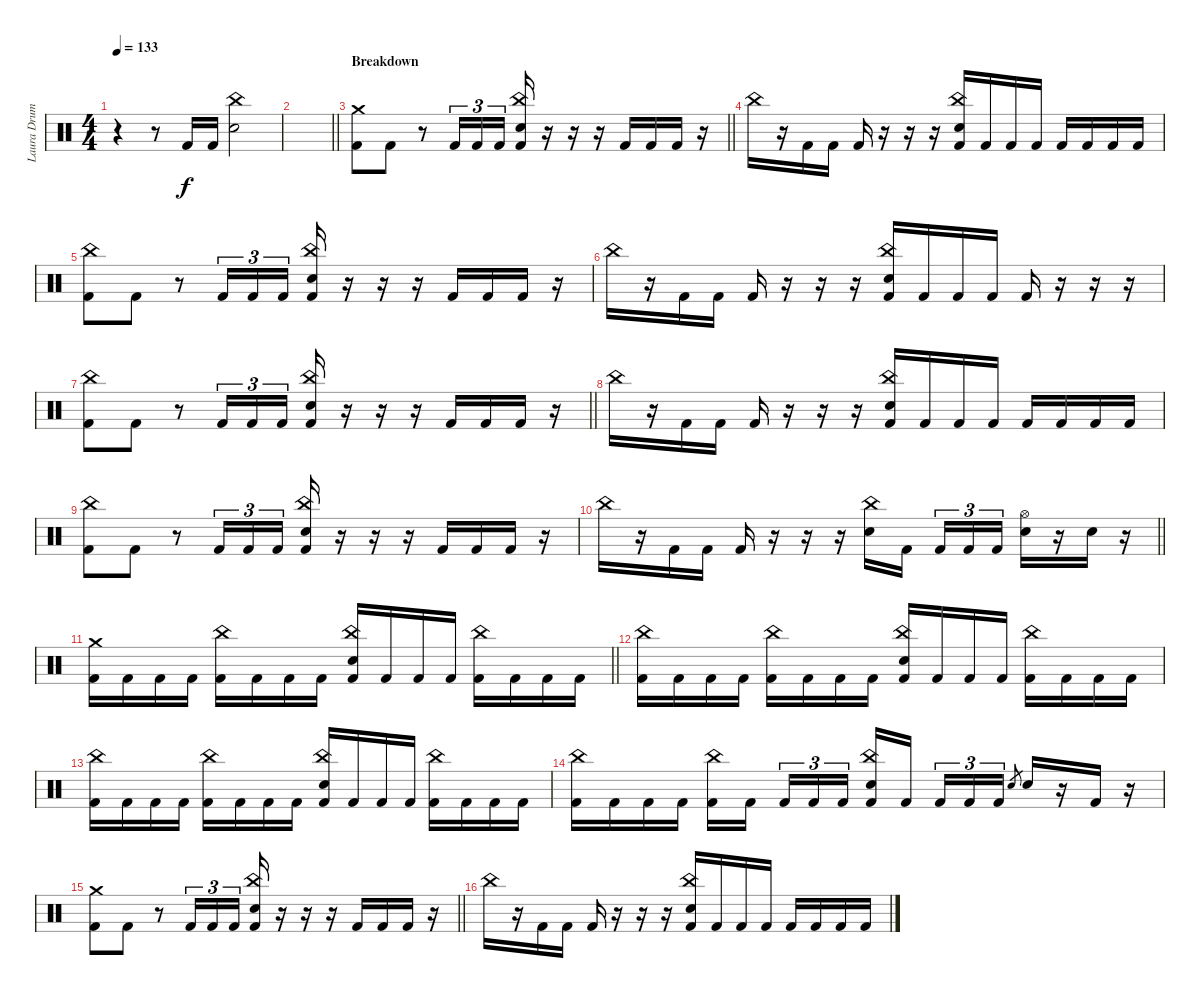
\track ("Laura Drums" "Laura Drum") {instrument percussion}
\staff {score}
\articulation defaults
\ts (4 4)
\tempo 133
\clef neutral
\ks c
r.4{dy f} r.8 "Kick (hit) 2".16 "Kick (hit) 2".16 ("China (hit)" "Electric Snare (hit)").2 |
\barLineRight lightlight
|
\section ("" "Breakdown")
\barLineRight lightlight
("Crash medium (hit)" "Kick (hit) 2").8 "Kick (hit) 2".8 r.8 "Kick (hit) 2".16{tu (3 2)} "Kick (hit) 2".16{tu (3 2)} "Kick (hit) 2".16{tu (3 2)} ("China (hit)" "Electric Snare (hit)" "Kick (hit) 2").16 r.16 r.16 r.16 "Kick (hit) 2".16 "Kick (hit) 2".16 "Kick (hit) 2".16 r.16 |
"China (hit)".16 r.16 "Kick (hit) 2".16 "Kick (hit) 2".16 "Kick (hit) 2".16 r.16 r.16 r.16 ("China (hit)" "Electric Snare (hit)" "Kick (hit) 2").16 "Kick (hit) 2".16 "Kick (hit) 2".16 "Kick (hit) 2".16 "Kick (hit) 2".16 "Kick (hit) 2".16 "Kick (hit) 2".16 "Kick (hit) 2".16 |
("China (hit)" "Kick (hit) 2").8 "Kick (hit) 2".8 r.8 "Kick (hit) 2".16{tu (3 2)} "Kick (hit) 2".16{tu (3 2)} "Kick (hit) 2".16{tu (3 2)} ("China (hit)" "Electric Snare (hit)" "Kick (hit) 2").16 r.16 r.16 r.16 "Kick (hit) 2".16 "Kick (hit) 2".16 "Kick (hit) 2".16 r.16 |
"China (hit)".16 r.16 "Kick (hit) 2".16 "Kick (hit) 2".16 "Kick (hit) 2".16 r.16 r.16 r.16 ("China (hit)" "Electric Snare (hit)" "Kick (hit) 2").16 "Kick (hit) 2".16 "Kick (hit) 2".16 "Kick (hit) 2".16 "Kick (hit) 2".16 r.16 r.16 r.16 |
\barLineRight lightlight
("China (hit)" "Kick (hit) 2").8 "Kick (hit) 2".8 r.8 "Kick (hit) 2".16{tu (3 2)} "Kick (hit) 2".16{tu (3 2)} "Kick (hit) 2".16{tu (3 2)} ("China (hit)" "Electric Snare (hit)" "Kick (hit) 2").16 r.16 r.16 r.16 "Kick (hit) 2".16 "Kick (hit) 2".16 "Kick (hit) 2".16 r.16 |
"China (hit)".16 r.16 "Kick (hit) 2".16 "Kick (hit) 2".16 "Kick (hit) 2".16 r.16 r.16 r.16 ("China (hit)" "Electric Snare (hit)" "Kick (hit) 2").16 "Kick (hit) 2".16 "Kick (hit) 2".16 "Kick (hit) 2".16 "Kick (hit) 2".16 "Kick (hit) 2".16 "Kick (hit) 2".16 "Kick (hit) 2".16 |
("China (hit)" "Kick (hit) 2").8 "Kick (hit) 2".8 r.8 "Kick (hit) 2".16{tu (3 2)} "Kick (hit) 2".16{tu (3 2)} "Kick (hit) 2".16{tu (3 2)} ("China (hit)" "Electric Snare (hit)" "Kick (hit) 2").16 r.16 r.16 r.16 "Kick (hit) 2".16 "Kick (hit) 2".16 "Kick (hit) 2".16 r.16 |
\barLineRight lightlight "China (hit)".16
r.16 "Kick (hit) 2".16 "Kick (hit) 2".16 "Kick (hit) 2".16 r.16 r.16 r.16 ("China (hit)" "Electric Snare (hit)").16 "Kick (hit) 2".16{beam splitsecondary} "Kick (hit) 2".16{tu (3 2)} "Kick (hit) 2".16{tu (3 2)} "Kick (hit) 2".16{tu (3 2)} ("Hi-Hat (open)" "Electric Snare (hit)").16 r.16 "Electric Snare (hit)".16 r.16 |
\section ("" "")
\barLineRight lightlight
("Crash medium (hit)" "Kick (hit) 2").16 "Kick (hit) 2".16 "Kick (hit) 2".16 "Kick (hit) 2".16 ("China (hit)" "Kick (hit) 2").16 "Kick (hit) 2".16 "Kick (hit) 2".16 "Kick (hit) 2".16 ("China (hit)" "Electric Snare (hit)" "Kick (hit) 2").16 "Kick (hit) 2".16 "Kick (hit) 2".16 "Kick (hit) 2".16 ("China (hit)" "Kick (hit) 2").16 "Kick (hit) 2".16 "Kick (hit) 2".16 "Kick (hit) 2".16 |
("China (hit)" "Kick (hit) 2").16 "Kick (hit) 2".16 "Kick (hit) 2".16 "Kick (hit) 2".16 ("China (hit)" "Kick (hit) 2").16 "Kick (hit) 2".16 "Kick (hit) 2".16 "Kick (hit) 2".16 ("China (hit)" "Electric Snare (hit)" "Kick (hit) 2").16 "Kick (hit) 2".16 "Kick (hit) 2".16 "Kick (hit) 2".16 ("China (hit)" "Kick (hit) 2").16 "Kick (hit) 2".16 "Kick (hit) 2".16 "Kick (hit) 2".16 |
("China (hit)" "Kick (hit) 2").16 "Kick (hit) 2".16 "Kick (hit) 2".16 "Kick (hit) 2".16 ("China (hit)" "Kick (hit) 2").16 "Kick (hit) 2".16 "Kick (hit) 2".16 "Kick (hit) 2".16 ("China (hit)" "Electric Snare (hit)" "Kick (hit) 2").16 "Kick (hit) 2".16 "Kick (hit) 2".16 "Kick (hit) 2".16 ("China (hit)" "Kick (hit) 2").16 "Kick (hit) 2".16 "Kick (hit) 2".16 "Kick (hit) 2".16 |
("China (hit)" "Kick (hit) 2").16 "Kick (hit) 2".16 "Kick (hit) 2".16 "Kick (hit) 2".16 ("China (hit)" "Kick (hit) 2").16 "Kick (hit) 2".16{beam splitsecondary} "Kick (hit) 2".16{tu (3 2)} "Kick (hit) 2".16{tu (3 2)} "Kick (hit) 2".16{tu (3 2)} ("China (hit)" "Electric Snare (hit)" "Kick (hit) 2").16 "Kick (hit) 2".16{beam splitsecondary} "Kick (hit) 2".16{tu (3 2)} "Kick (hit) 2".16{tu (3 2)} "Kick (hit) 2".16{tu (3 2)} "Electric Snare (hit)".8{gr} "Electric Snare (hit)".16 r.16 "Kick (hit) 2".16 r.16 |
\barLineRight lightlight
("Crash medium (hit)" "Kick (hit) 2").8 "Kick (hit) 2".8 r.8 "Kick (hit) 2".16{tu (3 2)} "Kick (hit) 2".16{tu (3 2)} "Kick (hit) 2".16{tu (3 2)} ("China (hit)" "Electric Snare (hit)" "Kick (hit) 2").16 r.16 r.16 r.16 "Kick (hit) 2".16 "Kick (hit) 2".16 "Kick (hit) 2".16 r.16 |
"China (hit)".16 r.16 "Kick (hit) 2".16 "Kick (hit) 2".16 "Kick (hit) 2".16 r.16 r.16 r.16 ("China (hit)" "Electric Snare (hit)" "Kick (hit) 2").16 "Kick (hit) 2".16 "Kick (hit) 2".16 "Kick (hit) 2".16 "Kick (hit) 2".16 "Kick (hit) 2".16 "Kick (hit) 2".16 "Kick (hit) 2".16
